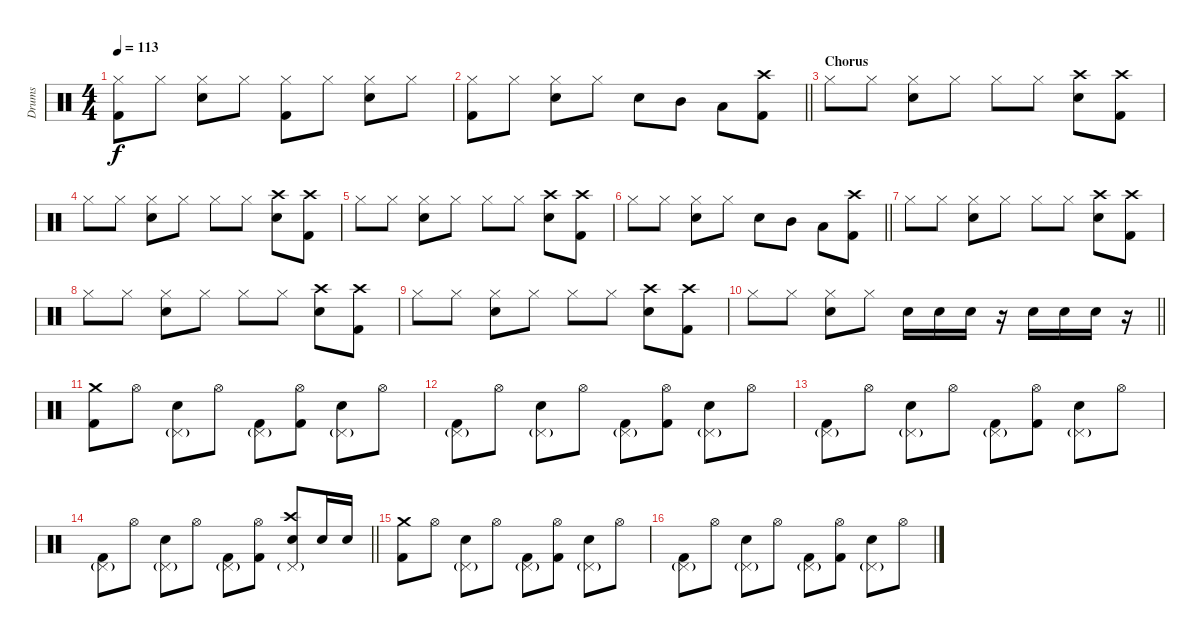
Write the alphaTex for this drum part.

\track ("Drums" "Drums") {instrument percussion}
\staff {score}
\articulation defaults
\ts (4 4)
\tempo 113
\clef neutral
\ks c
("Hi-Hat (closed)" "Kick (hit) 2").8{dy f} "Hi-Hat (closed)".8 ("Hi-Hat (closed)" "Electric Snare (hit)").8 "Hi-Hat (closed)".8 ("Hi-Hat (closed)" "Kick (hit) 2").8 "Hi-Hat (closed)".8 ("Hi-Hat (closed)" "Electric Snare (hit)").8 "Hi-Hat (closed)".8 |
\barLineRight lightlight
("Hi-Hat (closed)" "Kick (hit) 2").8 "Hi-Hat (closed)".8 ("Hi-Hat (closed)" "Electric Snare (hit)").8 "Hi-Hat (closed)".8 "Electric Snare (hit)".8 "Mid Tom (hit)".8 "Low Tom (hit)".8 ("Crash high (hit)" "Kick (hit) 2").8 |
\section ("" "Chorus")
"Hi-Hat (closed)".8 "Hi-Hat (closed)".8 ("Hi-Hat (closed)" "Electric Snare (hit)").8 "Hi-Hat (closed)".8 "Hi-Hat (closed)".8 "Hi-Hat (closed)".8 ("Crash high (hit)" "Electric Snare (hit)").8 ("Crash high (hit)" "Kick (hit) 2").8 |
"Hi-Hat (closed)".8 "Hi-Hat (closed)".8 ("Hi-Hat (closed)" "Electric Snare (hit)").8 "Hi-Hat (closed)".8 "Hi-Hat (closed)".8 "Hi-Hat (closed)".8 ("Crash high (hit)" "Electric Snare (hit)").8 ("Crash high (hit)" "Kick (hit) 2").8 |
"Hi-Hat (closed)".8 "Hi-Hat (closed)".8 ("Hi-Hat (closed)" "Electric Snare (hit)").8 "Hi-Hat (closed)".8 "Hi-Hat (closed)".8 "Hi-Hat (closed)".8 ("Crash high (hit)" "Electric Snare (hit)").8 ("Crash high (hit)" "Kick (hit) 2").8 |
\barLineRight lightlight "Hi-Hat (closed)".8 "Hi-Hat (closed)".8
("Hi-Hat (closed)" "Electric Snare (hit)").8 "Hi-Hat (closed)".8 "Electric Snare (hit)".8 "Mid Tom (hit)".8 "Low Tom (hit)".8 ("Crash high (hit)" "Kick (hit) 2").8 |
\section ("" "")
"Hi-Hat (closed)".8 "Hi-Hat (closed)".8 ("Hi-Hat (closed)" "Electric Snare (hit)").8 "Hi-Hat (closed)".8 "Hi-Hat (closed)".8 "Hi-Hat (closed)".8 ("Crash high (hit)" "Electric Snare (hit)").8 ("Crash high (hit)" "Kick (hit) 2").8 |
"Hi-Hat (closed)".8 "Hi-Hat (closed)".8 ("Hi-Hat (closed)" "Electric Snare (hit)").8 "Hi-Hat (closed)".8 "Hi-Hat (closed)".8 "Hi-Hat (closed)".8 ("Crash high (hit)" "Electric Snare (hit)").8 ("Crash high (hit)" "Kick (hit) 2").8 |
"Hi-Hat (closed)".8 "Hi-Hat (closed)".8 ("Hi-Hat (closed)" "Electric Snare (hit)").8 "Hi-Hat (closed)".8 "Hi-Hat (closed)".8 "Hi-Hat (closed)".8 ("Crash high (hit)" "Electric Snare (hit)").8 ("Crash high (hit)" "Kick (hit) 2").8 |
\barLineRight lightlight "Hi-Hat (closed)".8 "Hi-Hat (closed)".8
("Hi-Hat (closed)" "Electric Snare (hit)").8 "Hi-Hat (closed)".8 "Electric Snare (hit)".16 "Electric Snare (hit)".16 "Electric Snare (hit)".16 r.16 "Electric Snare (hit)".16 "Electric Snare (hit)".16 "Electric Snare (hit)".16 r.16 |
\section ("" "")
("Crash medium (hit)" "Kick (hit) 2").8 "Hi-Hat (open)".8 ("Electric Snare (hit)" "Pedal Hi-Hat (hit)"{g}).8 "Hi-Hat (open)".8 ("Kick (hit) 2" "Pedal Hi-Hat (hit)"{g}).8 ("Hi-Hat (open)" "Kick (hit) 2").8 ("Electric Snare (hit)" "Pedal Hi-Hat (hit)"{g}).8 "Hi-Hat (open)".8 |
("Kick (hit) 2" "Pedal Hi-Hat (hit)"{g}).8 "Hi-Hat (open)".8 ("Electric Snare (hit)" "Pedal Hi-Hat (hit)"{g}).8 "Hi-Hat (open)".8 ("Kick (hit) 2" "Pedal Hi-Hat (hit)"{g}).8 ("Hi-Hat (open)" "Kick (hit) 2").8 ("Electric Snare (hit)" "Pedal Hi-Hat (hit)"{g}).8 "Hi-Hat (open)".8 |
("Kick (hit) 2" "Pedal Hi-Hat (hit)"{g}).8 "Hi-Hat (open)".8 ("Electric Snare (hit)" "Pedal Hi-Hat (hit)"{g}).8 "Hi-Hat (open)".8 ("Kick (hit) 2" "Pedal Hi-Hat (hit)"{g}).8 ("Hi-Hat (open)" "Kick (hit) 2").8 ("Electric Snare (hit)" "Pedal Hi-Hat (hit)"{g}).8 "Hi-Hat (open)".8 |
\barLineRight lightlight
("Kick (hit) 2" "Pedal Hi-Hat (hit)"{g}).8 "Hi-Hat (open)".8 ("Electric Snare (hit)" "Pedal Hi-Hat (hit)"{g}).8 "Hi-Hat (open)".8 ("Kick (hit) 2" "Pedal Hi-Hat (hit)"{g}).8 ("Hi-Hat (open)" "Kick (hit) 2").8 ("Crash high (hit)" "Electric Snare (hit)" "Pedal Hi-Hat (hit)"{g}).8 "Electric Snare (hit)".16 "Electric Snare (hit)".16 |
\section ("" "")
("Crash medium (hit)" "Kick (hit) 2").8 "Hi-Hat (open)".8 ("Electric Snare (hit)" "Pedal Hi-Hat (hit)"{g}).8 "Hi-Hat (open)".8 ("Kick (hit) 2" "Pedal Hi-Hat (hit)"{g}).8 ("Hi-Hat (open)" "Kick (hit) 2").8 ("Electric Snare (hit)" "Pedal Hi-Hat (hit)"{g}).8 "Hi-Hat (open)".8 |
("Kick (hit) 2" "Pedal Hi-Hat (hit)"{g}).8 "Hi-Hat (open)".8 ("Electric Snare (hit)" "Pedal Hi-Hat (hit)"{g}).8 "Hi-Hat (open)".8 ("Kick (hit) 2" "Pedal Hi-Hat (hit)"{g}).8 ("Hi-Hat (open)" "Kick (hit) 2").8 ("Electric Snare (hit)" "Pedal Hi-Hat (hit)"{g}).8 "Hi-Hat (open)".8
